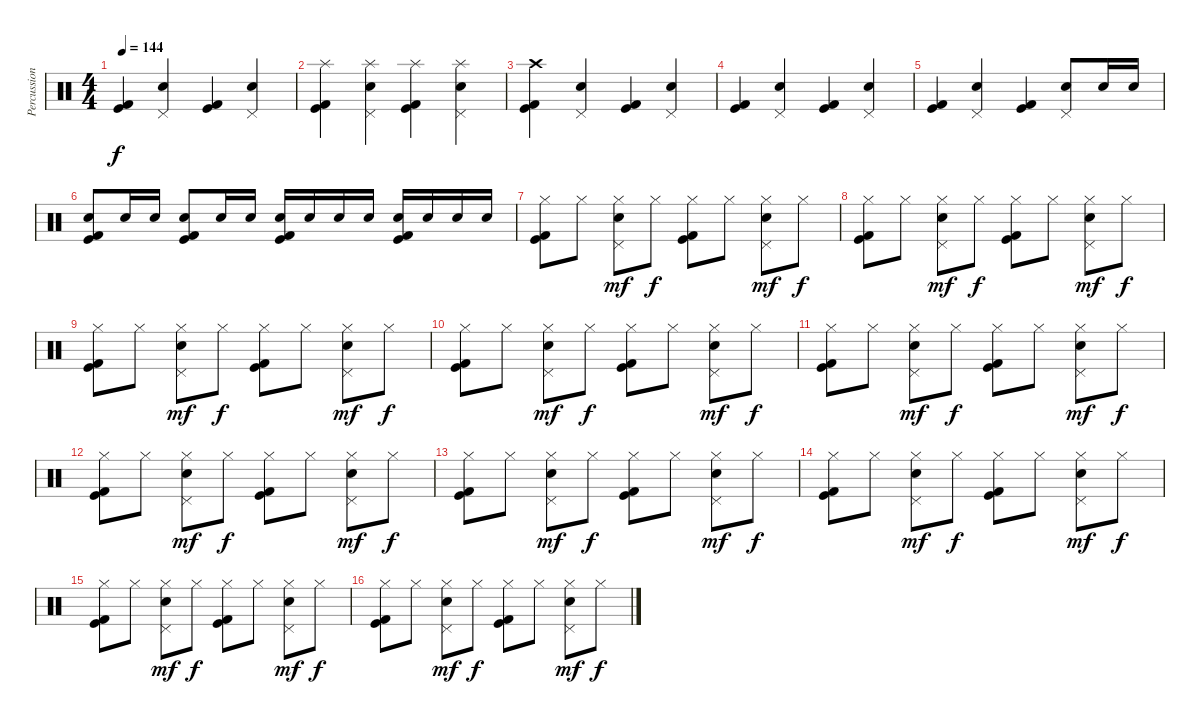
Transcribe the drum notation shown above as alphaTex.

\track ("Percussions" "Percussion") {instrument percussion}
\staff {score}
\articulation defaults
\ts (4 4)
\tempo 144
\clef neutral
\ks c
("Kick (hit)" "Kick (hit) 2").4{dy f} ("Pedal Hi-Hat (hit)" "Snare (hit) 2").4 ("Kick (hit)" "Kick (hit) 2").4 ("Pedal Hi-Hat (hit)" "Snare (hit) 2").4 |
("Splash (hit)" "Kick (hit)" "Kick (hit) 2").4 ("Splash (hit)" "Pedal Hi-Hat (hit)" "Snare (hit) 2").4 ("Splash (hit)" "Kick (hit)" "Kick (hit) 2").4 ("Splash (hit)" "Pedal Hi-Hat (hit)" "Snare (hit) 2").4 |
("Crash high (hit)" "Kick (hit)" "Kick (hit) 2").4 ("Pedal Hi-Hat (hit)" "Snare (hit) 2").4 ("Kick (hit)" "Kick (hit) 2").4 ("Pedal Hi-Hat (hit)" "Snare (hit) 2").4 |
("Kick (hit)" "Kick (hit) 2").4 ("Pedal Hi-Hat (hit)" "Snare (hit) 2").4 ("Kick (hit)" "Kick (hit) 2").4 ("Pedal Hi-Hat (hit)" "Snare (hit) 2").4 |
("Kick (hit)" "Kick (hit) 2").4 ("Pedal Hi-Hat (hit)" "Snare (hit) 2").4 ("Kick (hit)" "Kick (hit) 2").4 ("Pedal Hi-Hat (hit)" "Snare (hit) 2").8 "Electric Snare (hit)".16 "Electric Snare (hit)".16 |
("Electric Snare (hit)" "Kick (hit)" "Kick (hit) 2").8 "Electric Snare (hit)".16 "Electric Snare (hit)".16 ("Electric Snare (hit)" "Kick (hit)" "Kick (hit) 2").8 "Electric Snare (hit)".16 "Electric Snare (hit)".16 ("Electric Snare (hit)" "Kick (hit)" "Kick (hit) 2").16 "Electric Snare (hit)".16 "Electric Snare (hit)".16 "Electric Snare (hit)".16 ("Electric Snare (hit)" "Kick (hit)" "Kick (hit) 2").16 "Electric Snare (hit)".16 "Electric Snare (hit)".16 "Electric Snare (hit)".16 |
("Hi-Hat (closed)" "Kick (hit)" "Kick (hit) 2").8 "Hi-Hat (closed)".8 ("Pedal Hi-Hat (hit)" "Hi-Hat (closed)" "Snare (hit) 2").8{dy mf} "Hi-Hat (closed)".8{dy f} ("Hi-Hat (closed)" "Kick (hit)" "Kick (hit) 2").8 "Hi-Hat (closed)".8 ("Pedal Hi-Hat (hit)" "Hi-Hat (closed)" "Snare (hit) 2").8{dy mf} "Hi-Hat (closed)".8{dy f} |
("Hi-Hat (closed)" "Kick (hit)" "Kick (hit) 2").8 "Hi-Hat (closed)".8 ("Pedal Hi-Hat (hit)" "Hi-Hat (closed)" "Snare (hit) 2").8{dy mf} "Hi-Hat (closed)".8{dy f} ("Hi-Hat (closed)" "Kick (hit)" "Kick (hit) 2").8 "Hi-Hat (closed)".8 ("Pedal Hi-Hat (hit)" "Hi-Hat (closed)" "Snare (hit) 2").8{dy mf} "Hi-Hat (closed)".8{dy f} |
("Hi-Hat (closed)" "Kick (hit)" "Kick (hit) 2").8 "Hi-Hat (closed)".8 ("Pedal Hi-Hat (hit)" "Hi-Hat (closed)" "Snare (hit) 2").8{dy mf} "Hi-Hat (closed)".8{dy f} ("Hi-Hat (closed)" "Kick (hit)" "Kick (hit) 2").8 "Hi-Hat (closed)".8 ("Pedal Hi-Hat (hit)" "Hi-Hat (closed)" "Snare (hit) 2").8{dy mf} "Hi-Hat (closed)".8{dy f} |
("Hi-Hat (closed)" "Kick (hit)" "Kick (hit) 2").8 "Hi-Hat (closed)".8 ("Pedal Hi-Hat (hit)" "Hi-Hat (closed)" "Snare (hit) 2").8{dy mf} "Hi-Hat (closed)".8{dy f} ("Hi-Hat (closed)" "Kick (hit)" "Kick (hit) 2").8 "Hi-Hat (closed)".8 ("Pedal Hi-Hat (hit)" "Hi-Hat (closed)" "Snare (hit) 2").8{dy mf} "Hi-Hat (closed)".8{dy f} |
("Hi-Hat (closed)" "Kick (hit)" "Kick (hit) 2").8 "Hi-Hat (closed)".8 ("Pedal Hi-Hat (hit)" "Hi-Hat (closed)" "Snare (hit) 2").8{dy mf} "Hi-Hat (closed)".8{dy f} ("Hi-Hat (closed)" "Kick (hit)" "Kick (hit) 2").8 "Hi-Hat (closed)".8 ("Pedal Hi-Hat (hit)" "Hi-Hat (closed)" "Snare (hit) 2").8{dy mf} "Hi-Hat (closed)".8{dy f} |
("Hi-Hat (closed)" "Kick (hit)" "Kick (hit) 2").8 "Hi-Hat (closed)".8 ("Pedal Hi-Hat (hit)" "Hi-Hat (closed)" "Snare (hit) 2").8{dy mf} "Hi-Hat (closed)".8{dy f} ("Hi-Hat (closed)" "Kick (hit)" "Kick (hit) 2").8 "Hi-Hat (closed)".8 ("Pedal Hi-Hat (hit)" "Hi-Hat (closed)" "Snare (hit) 2").8{dy mf} "Hi-Hat (closed)".8{dy f} |
("Hi-Hat (closed)" "Kick (hit)" "Kick (hit) 2").8 "Hi-Hat (closed)".8 ("Pedal Hi-Hat (hit)" "Hi-Hat (closed)" "Snare (hit) 2").8{dy mf} "Hi-Hat (closed)".8{dy f} ("Hi-Hat (closed)" "Kick (hit)" "Kick (hit) 2").8 "Hi-Hat (closed)".8 ("Pedal Hi-Hat (hit)" "Hi-Hat (closed)" "Snare (hit) 2").8{dy mf} "Hi-Hat (closed)".8{dy f} |
("Hi-Hat (closed)" "Kick (hit)" "Kick (hit) 2").8 "Hi-Hat (closed)".8 ("Pedal Hi-Hat (hit)" "Hi-Hat (closed)" "Snare (hit) 2").8{dy mf} "Hi-Hat (closed)".8{dy f} ("Hi-Hat (closed)" "Kick (hit)" "Kick (hit) 2").8 "Hi-Hat (closed)".8 ("Pedal Hi-Hat (hit)" "Hi-Hat (closed)" "Snare (hit) 2").8{dy mf} "Hi-Hat (closed)".8{dy f} |
("Hi-Hat (closed)" "Kick (hit)" "Kick (hit) 2").8 "Hi-Hat (closed)".8 ("Pedal Hi-Hat (hit)" "Hi-Hat (closed)" "Snare (hit) 2").8{dy mf} "Hi-Hat (closed)".8{dy f} ("Hi-Hat (closed)" "Kick (hit)" "Kick (hit) 2").8 "Hi-Hat (closed)".8 ("Pedal Hi-Hat (hit)" "Hi-Hat (closed)" "Snare (hit) 2").8{dy mf} "Hi-Hat (closed)".8{dy f} |
("Hi-Hat (closed)" "Kick (hit)" "Kick (hit) 2").8 "Hi-Hat (closed)".8 ("Pedal Hi-Hat (hit)" "Hi-Hat (closed)" "Snare (hit) 2").8{dy mf} "Hi-Hat (closed)".8{dy f} ("Hi-Hat (closed)" "Kick (hit)" "Kick (hit) 2").8 "Hi-Hat (closed)".8 ("Pedal Hi-Hat (hit)" "Hi-Hat (closed)" "Snare (hit) 2").8{dy mf} "Hi-Hat (closed)".8{dy f}
